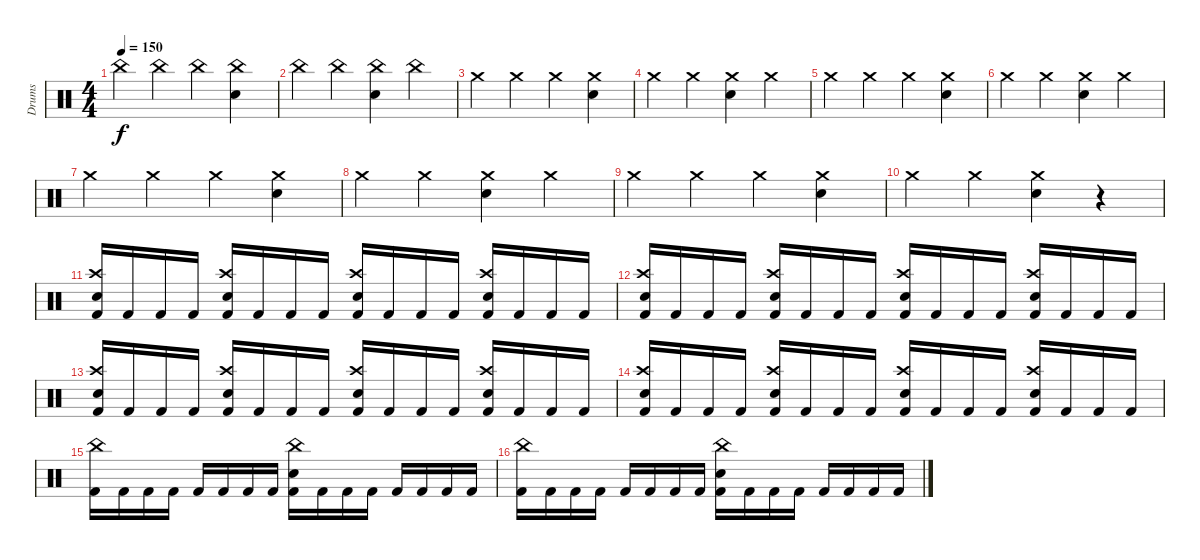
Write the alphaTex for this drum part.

\track ("Drums" "Drums") {instrument percussion}
\staff {score}
\articulation defaults
\ts (4 4)
\tempo 150
\clef neutral
\ks c "China (hit)".4{dy f} "China (hit)".4 "China (hit)".4
("China (hit)" "Electric Snare (hit)").4 |
"China (hit)".4 "China (hit)".4 ("China (hit)" "Electric Snare (hit)").4 "China (hit)".4 |
"Crash medium (hit)".4 "Crash medium (hit)".4 "Crash medium (hit)".4 ("Crash medium (hit)" "Electric Snare (hit)").4 |
"Crash medium (hit)".4 "Crash medium (hit)".4 ("Crash medium (hit)" "Electric Snare (hit)").4 "Crash medium (hit)".4 |
"Crash medium (hit)".4 "Crash medium (hit)".4 "Crash medium (hit)".4 ("Crash medium (hit)" "Electric Snare (hit)").4 |
"Crash medium (hit)".4 "Crash medium (hit)".4 ("Crash medium (hit)" "Electric Snare (hit)").4 "Crash medium (hit)".4 |
"Crash medium (hit)".4 "Crash medium (hit)".4 "Crash medium (hit)".4 ("Crash medium (hit)" "Electric Snare (hit)").4 |
"Crash medium (hit)".4 "Crash medium (hit)".4 ("Crash medium (hit)" "Electric Snare (hit)").4 "Crash medium (hit)".4 |
"Crash medium (hit)".4 "Crash medium (hit)".4 "Crash medium (hit)".4 ("Crash medium (hit)" "Electric Snare (hit)").4 |
"Crash medium (hit)".4 "Crash medium (hit)".4 ("Crash medium (hit)" "Electric Snare (hit)").4 r.4 |
("Crash high (hit)" "Electric Snare (hit)" "Kick (hit) 2").16 "Kick (hit) 2".16 "Kick (hit) 2".16 "Kick (hit) 2".16 ("Crash high (hit)" "Electric Snare (hit)" "Kick (hit) 2").16 "Kick (hit) 2".16 "Kick (hit) 2".16 "Kick (hit) 2".16 ("Crash high (hit)" "Electric Snare (hit)" "Kick (hit) 2").16 "Kick (hit) 2".16 "Kick (hit) 2".16 "Kick (hit) 2".16 ("Kick (hit) 2" "Crash high (hit)" "Electric Snare (hit)").16 "Kick (hit) 2".16 "Kick (hit) 2".16 "Kick (hit) 2".16 |
("Crash high (hit)" "Electric Snare (hit)" "Kick (hit) 2").16 "Kick (hit) 2".16 "Kick (hit) 2".16 "Kick (hit) 2".16 ("Crash high (hit)" "Electric Snare (hit)" "Kick (hit) 2").16 "Kick (hit) 2".16 "Kick (hit) 2".16 "Kick (hit) 2".16 ("Crash high (hit)" "Electric Snare (hit)" "Kick (hit) 2").16 "Kick (hit) 2".16 "Kick (hit) 2".16 "Kick (hit) 2".16 ("Kick (hit) 2" "Crash high (hit)" "Electric Snare (hit)").16 "Kick (hit) 2".16 "Kick (hit) 2".16 "Kick (hit) 2".16 |
("Crash high (hit)" "Electric Snare (hit)" "Kick (hit) 2").16 "Kick (hit) 2".16 "Kick (hit) 2".16 "Kick (hit) 2".16 ("Crash high (hit)" "Electric Snare (hit)" "Kick (hit) 2").16 "Kick (hit) 2".16 "Kick (hit) 2".16 "Kick (hit) 2".16 ("Crash high (hit)" "Electric Snare (hit)" "Kick (hit) 2").16 "Kick (hit) 2".16 "Kick (hit) 2".16 "Kick (hit) 2".16 ("Kick (hit) 2" "Crash high (hit)" "Electric Snare (hit)").16 "Kick (hit) 2".16 "Kick (hit) 2".16 "Kick (hit) 2".16 |
("Crash high (hit)" "Electric Snare (hit)" "Kick (hit) 2").16 "Kick (hit) 2".16 "Kick (hit) 2".16 "Kick (hit) 2".16 ("Crash high (hit)" "Electric Snare (hit)" "Kick (hit) 2").16 "Kick (hit) 2".16 "Kick (hit) 2".16 "Kick (hit) 2".16 ("Crash high (hit)" "Electric Snare (hit)" "Kick (hit) 2").16 "Kick (hit) 2".16 "Kick (hit) 2".16 "Kick (hit) 2".16 ("Kick (hit) 2" "Crash high (hit)" "Electric Snare (hit)").16 "Kick (hit) 2".16 "Kick (hit) 2".16 "Kick (hit) 2".16 |
("China (hit)" "Kick (hit) 2").16 "Kick (hit) 2".16 "Kick (hit) 2".16 "Kick (hit) 2".16 "Kick (hit) 2".16 "Kick (hit) 2".16 "Kick (hit) 2".16 "Kick (hit) 2".16 ("China (hit)" "Electric Snare (hit)" "Kick (hit) 2").16 "Kick (hit) 2".16 "Kick (hit) 2".16 "Kick (hit) 2".16 "Kick (hit) 2".16 "Kick (hit) 2".16 "Kick (hit) 2".16 "Kick (hit) 2".16 |
("China (hit)" "Kick (hit) 2").16 "Kick (hit) 2".16 "Kick (hit) 2".16 "Kick (hit) 2".16 "Kick (hit) 2".16 "Kick (hit) 2".16 "Kick (hit) 2".16 "Kick (hit) 2".16 ("China (hit)" "Electric Snare (hit)" "Kick (hit) 2").16 "Kick (hit) 2".16 "Kick (hit) 2".16 "Kick (hit) 2".16 "Kick (hit) 2".16 "Kick (hit) 2".16 "Kick (hit) 2".16 "Kick (hit) 2".16
